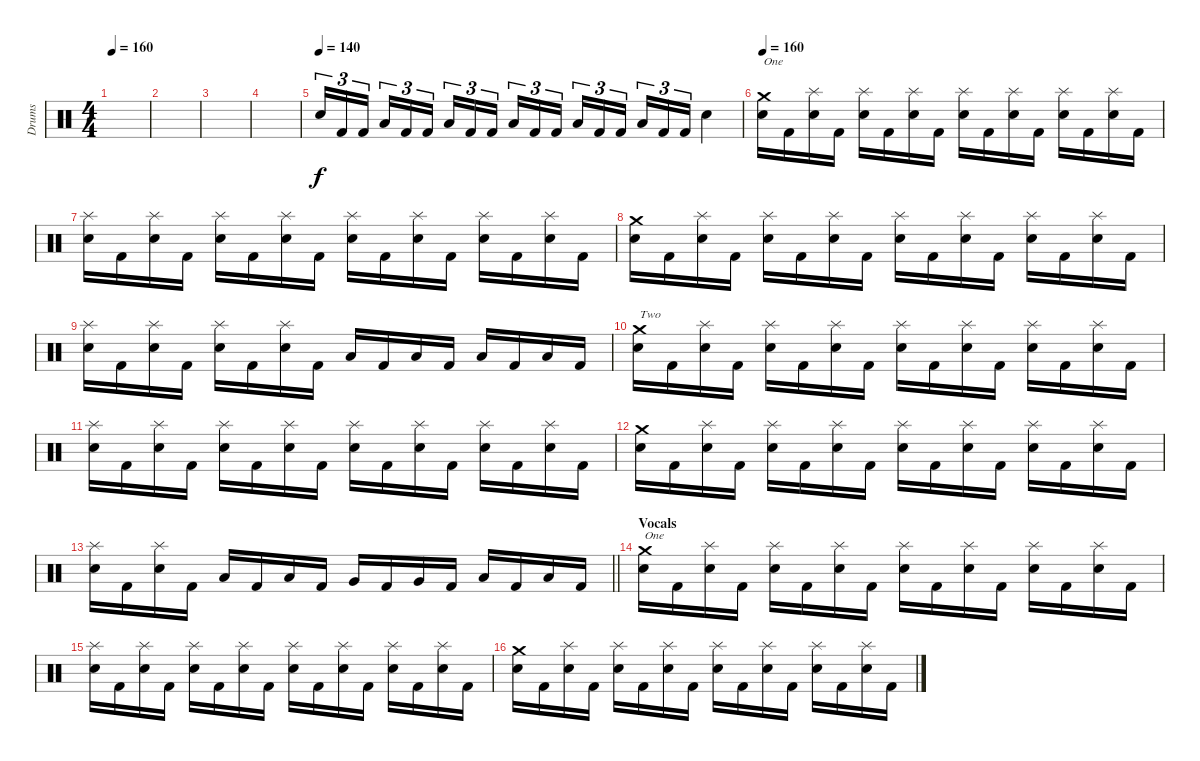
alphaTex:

\track ("Drums" "Drums") {instrument percussion}
\staff {score}
\articulation defaults
\ts (4 4)
\tempo 160
\tempo 120
\tempo 160
\clef neutral
\ks c
|
|
|
|
\tempo (140)
"Snare (hit) 2".16{tu (3 2)} "Kick (hit) 2".16{tu (3 2)} "Kick (hit) 2".16{tu (3 2) beam splitsecondary} "Low Tom (hit)".16{tu (3 2)} "Kick (hit) 2".16{tu (3 2)} "Kick (hit) 2".16{tu (3 2)} "Low Tom (hit)".16{tu (3 2)} "Kick (hit) 2".16{tu (3 2)} "Kick (hit) 2".16{tu (3 2) beam splitsecondary} "Low Tom (hit)".16{tu (3 2)} "Kick (hit) 2".16{tu (3 2)} "Kick (hit) 2".16{tu (3 2)} "Low Tom (hit)".16{tu (3 2)} "Kick (hit) 2".16{tu (3 2)} "Kick (hit) 2".16{tu (3 2) beam splitsecondary} "Low Tom (hit)".16{tu (3 2)} "Kick (hit) 2".16{tu (3 2)} "Kick (hit) 2".16{tu (3 2)} "Snare (hit) 2".4 |
\tempo 160
("Crash medium (hit)" "Snare (hit) 2").16{txt "One"} "Kick (hit) 2".16 ("Splash (hit)" "Snare (hit) 2").16 "Kick (hit) 2".16 ("Splash (hit)" "Snare (hit) 2").16 "Kick (hit) 2".16 ("Splash (hit)" "Snare (hit) 2").16 "Kick (hit) 2".16 ("Splash (hit)" "Snare (hit) 2").16 "Kick (hit) 2".16 ("Splash (hit)" "Snare (hit) 2").16 "Kick (hit) 2".16 ("Splash (hit)" "Snare (hit) 2").16 "Kick (hit) 2".16 ("Splash (hit)" "Snare (hit) 2").16 "Kick (hit) 2".16 |
("Splash (hit)" "Snare (hit) 2").16 "Kick (hit) 2".16 ("Splash (hit)" "Snare (hit) 2").16 "Kick (hit) 2".16 ("Splash (hit)" "Snare (hit) 2").16 "Kick (hit) 2".16 ("Splash (hit)" "Snare (hit) 2").16 "Kick (hit) 2".16 ("Splash (hit)" "Snare (hit) 2").16 "Kick (hit) 2".16 ("Splash (hit)" "Snare (hit) 2").16 "Kick (hit) 2".16 ("Splash (hit)" "Snare (hit) 2").16 "Kick (hit) 2".16 ("Splash (hit)" "Snare (hit) 2").16 "Kick (hit) 2".16 |
("Crash medium (hit)" "Snare (hit) 2").16 "Kick (hit) 2".16 ("Splash (hit)" "Snare (hit) 2").16 "Kick (hit) 2".16 ("Splash (hit)" "Snare (hit) 2").16 "Kick (hit) 2".16 ("Splash (hit)" "Snare (hit) 2").16 "Kick (hit) 2".16 ("Splash (hit)" "Snare (hit) 2").16 "Kick (hit) 2".16 ("Splash (hit)" "Snare (hit) 2").16 "Kick (hit) 2".16 ("Splash (hit)" "Snare (hit) 2").16 "Kick (hit) 2".16 ("Splash (hit)" "Snare (hit) 2").16 "Kick (hit) 2".16 |
("Splash (hit)" "Snare (hit) 2").16 "Kick (hit) 2".16 ("Splash (hit)" "Snare (hit) 2").16 "Kick (hit) 2".16 ("Splash (hit)" "Snare (hit) 2").16 "Kick (hit) 2".16 ("Splash (hit)" "Snare (hit) 2").16 "Kick (hit) 2".16 "Low Tom (hit)".16 "Kick (hit) 2".16 "Low Tom (hit)".16 "Kick (hit) 2".16 "Low Tom (hit)".16 "Kick (hit) 2".16 "Low Tom (hit)".16 "Kick (hit) 2".16 |
("Crash medium (hit)" "Snare (hit) 2").16{txt "Two"} "Kick (hit) 2".16 ("Splash (hit)" "Snare (hit) 2").16 "Kick (hit) 2".16 ("Splash (hit)" "Snare (hit) 2").16 "Kick (hit) 2".16 ("Splash (hit)" "Snare (hit) 2").16 "Kick (hit) 2".16 ("Splash (hit)" "Snare (hit) 2").16 "Kick (hit) 2".16 ("Splash (hit)" "Snare (hit) 2").16 "Kick (hit) 2".16 ("Splash (hit)" "Snare (hit) 2").16 "Kick (hit) 2".16 ("Splash (hit)" "Snare (hit) 2").16 "Kick (hit) 2".16 |
("Splash (hit)" "Snare (hit) 2").16 "Kick (hit) 2".16 ("Splash (hit)" "Snare (hit) 2").16 "Kick (hit) 2".16 ("Splash (hit)" "Snare (hit) 2").16 "Kick (hit) 2".16 ("Splash (hit)" "Snare (hit) 2").16 "Kick (hit) 2".16 ("Splash (hit)" "Snare (hit) 2").16 "Kick (hit) 2".16 ("Splash (hit)" "Snare (hit) 2").16 "Kick (hit) 2".16 ("Splash (hit)" "Snare (hit) 2").16 "Kick (hit) 2".16 ("Splash (hit)" "Snare (hit) 2").16 "Kick (hit) 2".16 |
("Crash medium (hit)" "Snare (hit) 2").16 "Kick (hit) 2".16 ("Splash (hit)" "Snare (hit) 2").16 "Kick (hit) 2".16 ("Splash (hit)" "Snare (hit) 2").16 "Kick (hit) 2".16 ("Splash (hit)" "Snare (hit) 2").16 "Kick (hit) 2".16 ("Splash (hit)" "Snare (hit) 2").16 "Kick (hit) 2".16 ("Splash (hit)" "Snare (hit) 2").16 "Kick (hit) 2".16 ("Splash (hit)" "Snare (hit) 2").16 "Kick (hit) 2".16 ("Splash (hit)" "Snare (hit) 2").16 "Kick (hit) 2".16 |
\barLineRight lightlight
("Splash (hit)" "Snare (hit) 2").16 "Kick (hit) 2".16 ("Splash (hit)" "Snare (hit) 2").16 "Kick (hit) 2".16 "Low Tom (hit)".16 "Kick (hit) 2".16 "Low Tom (hit)".16 "Kick (hit) 2".16 "Very Low Tom (hit)".16 "Kick (hit) 2".16 "Very Low Tom (hit)".16 "Kick (hit) 2".16 "Low Floor Tom (hit)".16 "Kick (hit) 2".16 "Low Floor Tom (hit)".16 "Kick (hit) 2".16 |
\section ("" "Vocals")
("Crash medium (hit)" "Snare (hit) 2").16{txt "One"} "Kick (hit) 2".16 ("Splash (hit)" "Snare (hit) 2").16 "Kick (hit) 2".16 ("Splash (hit)" "Snare (hit) 2").16 "Kick (hit) 2".16 ("Splash (hit)" "Snare (hit) 2").16 "Kick (hit) 2".16 ("Splash (hit)" "Snare (hit) 2").16 "Kick (hit) 2".16 ("Splash (hit)" "Snare (hit) 2").16 "Kick (hit) 2".16 ("Splash (hit)" "Snare (hit) 2").16 "Kick (hit) 2".16 ("Splash (hit)" "Snare (hit) 2").16 "Kick (hit) 2".16 |
("Splash (hit)" "Snare (hit) 2").16 "Kick (hit) 2".16 ("Splash (hit)" "Snare (hit) 2").16 "Kick (hit) 2".16 ("Splash (hit)" "Snare (hit) 2").16 "Kick (hit) 2".16 ("Splash (hit)" "Snare (hit) 2").16 "Kick (hit) 2".16 ("Splash (hit)" "Snare (hit) 2").16 "Kick (hit) 2".16 ("Splash (hit)" "Snare (hit) 2").16 "Kick (hit) 2".16 ("Splash (hit)" "Snare (hit) 2").16 "Kick (hit) 2".16 ("Splash (hit)" "Snare (hit) 2").16 "Kick (hit) 2".16 |
("Crash medium (hit)" "Snare (hit) 2").16 "Kick (hit) 2".16 ("Splash (hit)" "Snare (hit) 2").16 "Kick (hit) 2".16 ("Splash (hit)" "Snare (hit) 2").16 "Kick (hit) 2".16 ("Splash (hit)" "Snare (hit) 2").16 "Kick (hit) 2".16 ("Splash (hit)" "Snare (hit) 2").16 "Kick (hit) 2".16 ("Splash (hit)" "Snare (hit) 2").16 "Kick (hit) 2".16 ("Splash (hit)" "Snare (hit) 2").16 "Kick (hit) 2".16 ("Splash (hit)" "Snare (hit) 2").16 "Kick (hit) 2".16
